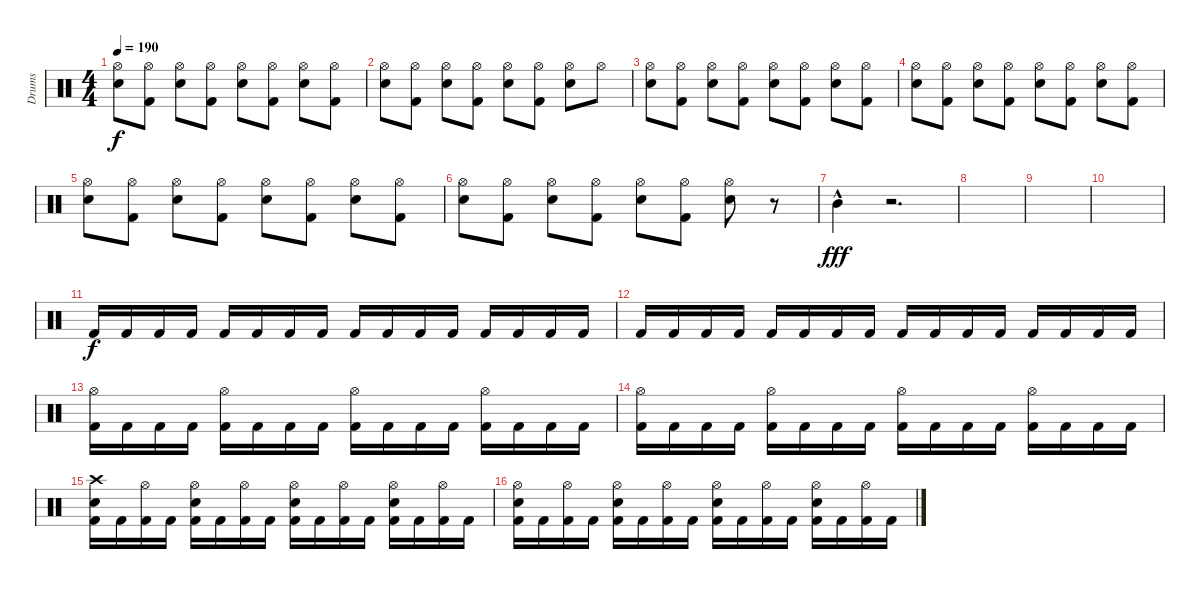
\track ("Drums" "Drums") {instrument percussion}
\staff {score}
\articulation defaults
\ts (4 4)
\tempo 190
\clef neutral
\ks aminor
("Electric Snare (hit)" "Hi-Hat (open)").8{dy f} ("Kick (hit) 2" "Hi-Hat (open)").8 ("Electric Snare (hit)" "Hi-Hat (open)").8 ("Kick (hit) 2" "Hi-Hat (open)").8 ("Electric Snare (hit)" "Hi-Hat (open)").8 ("Kick (hit) 2" "Hi-Hat (open)").8 ("Electric Snare (hit)" "Hi-Hat (open)").8 ("Kick (hit) 2" "Hi-Hat (open)").8 |
("Electric Snare (hit)" "Hi-Hat (open)").8 ("Kick (hit) 2" "Hi-Hat (open)").8 ("Electric Snare (hit)" "Hi-Hat (open)").8 ("Kick (hit) 2" "Hi-Hat (open)").8 ("Electric Snare (hit)" "Hi-Hat (open)").8 ("Kick (hit) 2" "Hi-Hat (open)").8 ("Electric Snare (hit)" "Hi-Hat (open)").8 "Hi-Hat (open)".8 |
("Electric Snare (hit)" "Hi-Hat (open)").8 ("Kick (hit) 2" "Hi-Hat (open)").8 ("Electric Snare (hit)" "Hi-Hat (open)").8 ("Kick (hit) 2" "Hi-Hat (open)").8 ("Electric Snare (hit)" "Hi-Hat (open)").8 ("Kick (hit) 2" "Hi-Hat (open)").8 ("Electric Snare (hit)" "Hi-Hat (open)").8 ("Kick (hit) 2" "Hi-Hat (open)").8 |
("Electric Snare (hit)" "Hi-Hat (open)").8 ("Kick (hit) 2" "Hi-Hat (open)").8 ("Electric Snare (hit)" "Hi-Hat (open)").8 ("Kick (hit) 2" "Hi-Hat (open)").8 ("Electric Snare (hit)" "Hi-Hat (open)").8 ("Kick (hit) 2" "Hi-Hat (open)").8 ("Electric Snare (hit)" "Hi-Hat (open)").8 ("Kick (hit) 2" "Hi-Hat (open)").8 |
("Electric Snare (hit)" "Hi-Hat (open)").8 ("Kick (hit) 2" "Hi-Hat (open)").8 ("Electric Snare (hit)" "Hi-Hat (open)").8 ("Kick (hit) 2" "Hi-Hat (open)").8 ("Electric Snare (hit)" "Hi-Hat (open)").8 ("Kick (hit) 2" "Hi-Hat (open)").8 ("Electric Snare (hit)" "Hi-Hat (open)").8 ("Kick (hit) 2" "Hi-Hat (open)").8 |
("Electric Snare (hit)" "Hi-Hat (open)").8 ("Kick (hit) 2" "Hi-Hat (open)").8 ("Electric Snare (hit)" "Hi-Hat (open)").8 ("Kick (hit) 2" "Hi-Hat (open)").8 ("Electric Snare (hit)" "Hi-Hat (open)").8 ("Kick (hit) 2" "Hi-Hat (open)").8 ("Electric Snare (hit)" "Hi-Hat (open)").8 r.8 |
"Mid Tom (hit)"{hac}.4{dy fff} r.2{d} |
|
|
|
"Kick (hit) 2".16{dy f} "Kick (hit) 2".16 "Kick (hit) 2".16 "Kick (hit) 2".16 "Kick (hit) 2".16 "Kick (hit) 2".16 "Kick (hit) 2".16 "Kick (hit) 2".16 "Kick (hit) 2".16 "Kick (hit) 2".16 "Kick (hit) 2".16 "Kick (hit) 2".16 "Kick (hit) 2".16 "Kick (hit) 2".16 "Kick (hit) 2".16 "Kick (hit) 2".16 |
"Kick (hit) 2".16 "Kick (hit) 2".16 "Kick (hit) 2".16 "Kick (hit) 2".16 "Kick (hit) 2".16 "Kick (hit) 2".16 "Kick (hit) 2".16 "Kick (hit) 2".16 "Kick (hit) 2".16 "Kick (hit) 2".16 "Kick (hit) 2".16 "Kick (hit) 2".16 "Kick (hit) 2".16 "Kick (hit) 2".16 "Kick (hit) 2".16 "Kick (hit) 2".16 |
("Kick (hit) 2" "Hi-Hat (open)").16 "Kick (hit) 2".16 "Kick (hit) 2".16 "Kick (hit) 2".16 ("Kick (hit) 2" "Hi-Hat (open)").16 "Kick (hit) 2".16 "Kick (hit) 2".16 "Kick (hit) 2".16 ("Kick (hit) 2" "Hi-Hat (open)").16 "Kick (hit) 2".16 "Kick (hit) 2".16 "Kick (hit) 2".16 ("Kick (hit) 2" "Hi-Hat (open)").16 "Kick (hit) 2".16 "Kick (hit) 2".16 "Kick (hit) 2".16 |
("Kick (hit) 2" "Hi-Hat (open)").16 "Kick (hit) 2".16 "Kick (hit) 2".16 "Kick (hit) 2".16 ("Kick (hit) 2" "Hi-Hat (open)").16 "Kick (hit) 2".16 "Kick (hit) 2".16 "Kick (hit) 2".16 ("Kick (hit) 2" "Hi-Hat (open)").16 "Kick (hit) 2".16 "Kick (hit) 2".16 "Kick (hit) 2".16 ("Kick (hit) 2" "Hi-Hat (open)").16 "Kick (hit) 2".16 "Kick (hit) 2".16 "Kick (hit) 2".16 |
("Kick (hit) 2" "Electric Snare (hit)" "Crash high (hit)").16 "Kick (hit) 2".16 ("Kick (hit) 2" "Hi-Hat (open)").16 "Kick (hit) 2".16 ("Kick (hit) 2" "Electric Snare (hit)" "Hi-Hat (open)").16 "Kick (hit) 2".16 ("Kick (hit) 2" "Hi-Hat (open)").16 "Kick (hit) 2".16 ("Kick (hit) 2" "Electric Snare (hit)" "Hi-Hat (open)").16 "Kick (hit) 2".16 ("Kick (hit) 2" "Hi-Hat (open)").16 "Kick (hit) 2".16 ("Kick (hit) 2" "Electric Snare (hit)" "Hi-Hat (open)").16 "Kick (hit) 2".16 ("Kick (hit) 2" "Hi-Hat (open)").16 "Kick (hit) 2".16 |
("Kick (hit) 2" "Electric Snare (hit)" "Hi-Hat (open)").16 "Kick (hit) 2".16 ("Kick (hit) 2" "Hi-Hat (open)").16 "Kick (hit) 2".16 ("Kick (hit) 2" "Electric Snare (hit)" "Hi-Hat (open)").16 "Kick (hit) 2".16 ("Kick (hit) 2" "Hi-Hat (open)").16 "Kick (hit) 2".16 ("Kick (hit) 2" "Electric Snare (hit)" "Hi-Hat (open)").16 "Kick (hit) 2".16 ("Kick (hit) 2" "Hi-Hat (open)").16 "Kick (hit) 2".16 ("Kick (hit) 2" "Electric Snare (hit)" "Hi-Hat (open)").16 "Kick (hit) 2".16 ("Kick (hit) 2" "Hi-Hat (open)").16 "Kick (hit) 2".16
